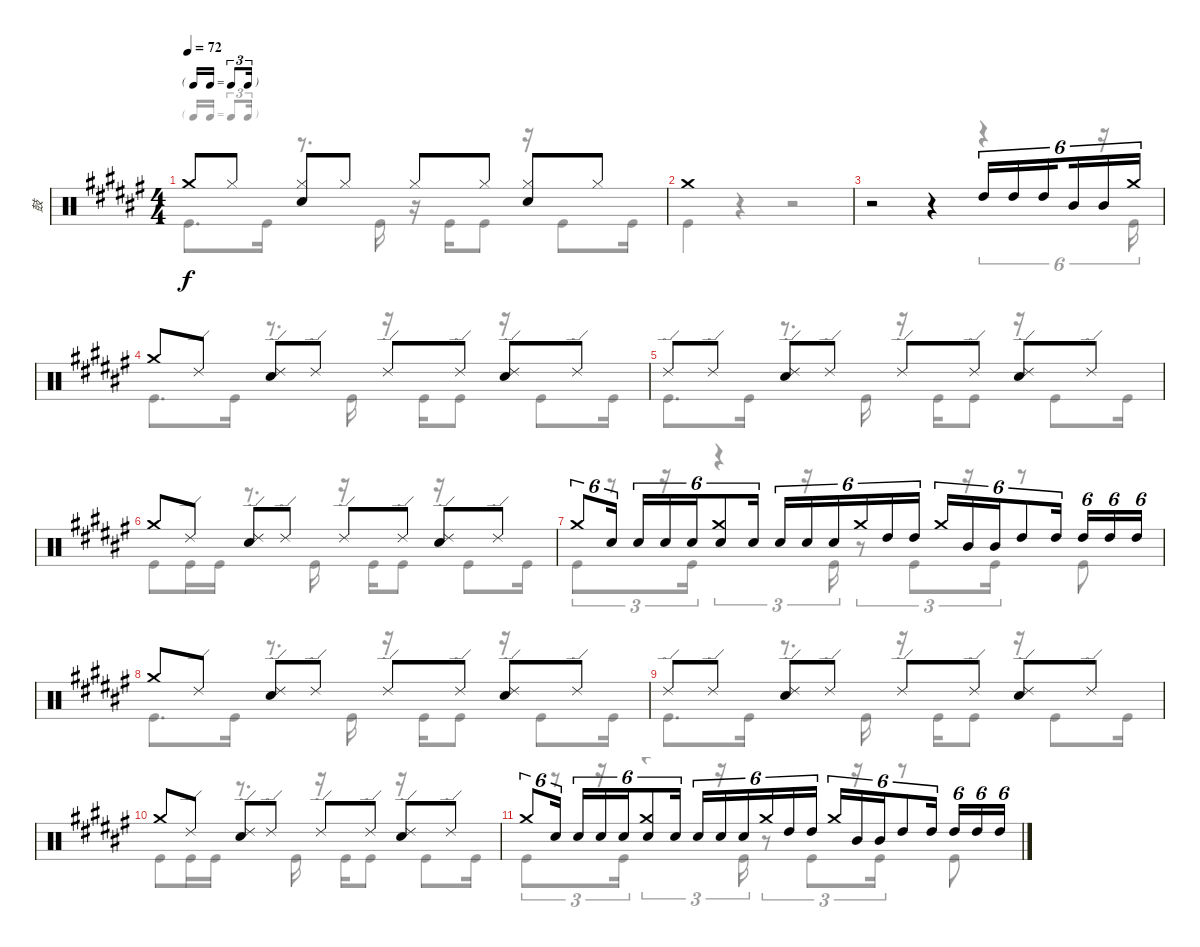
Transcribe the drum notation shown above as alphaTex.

\track ("鼓" "鼓") {instrument percussion}
\staff {score}
\articulation defaults
\voice
\ts (4 4)
\tf triplet16th
\tempo 72
\clef neutral
\ks f# "Crash medium (hit)".8{dy f} "Hi-Hat (closed)".8
("Hi-Hat (closed)" "Snare (hit) 2").8 "Hi-Hat (closed)".8 "Hi-Hat (closed)".8 "Hi-Hat (closed)".8 ("Hi-Hat (closed)" "Snare (hit) 2").8 "Hi-Hat (closed)".8 |
"Crash medium (hit)".1 |
r.2 r.4 "High Tom (hit)".16{tu (6 4)} "High Tom (hit)".16{tu (6 4)} "High Tom (hit)".16{tu (6 4) beam splitsecondary} "Mid Tom (hit)".16{tu (6 4)} "Mid Tom (hit)".16{tu (6 4)} "Crash medium (hit)".16{tu (6 4)} |
"Crash medium (hit)".8 "Ride (edge) 2".8 ("Ride (edge) 2" "Snare (hit) 2").8 "Ride (edge) 2".8 "Ride (edge) 2".8 "Ride (edge) 2".8 ("Ride (edge) 2" "Snare (hit) 2").8 "Ride (edge) 2".8 |
"Ride (edge) 2".8 "Ride (edge) 2".8 ("Ride (edge) 2" "Snare (hit) 2").8 "Ride (edge) 2".8 "Ride (edge) 2".8 "Ride (edge) 2".8 ("Ride (edge) 2" "Snare (hit) 2").8 "Ride (edge) 2".8 |
"Crash medium (hit)".8 "Ride (edge) 2".8 ("Ride (edge) 2" "Snare (hit) 2").8 "Ride (edge) 2".8 "Ride (edge) 2".8 "Ride (edge) 2".8 ("Ride (edge) 2" "Snare (hit) 2").8 "Ride (edge) 2".8 |
"Crash medium (hit)".8{tu (6 4)} "Snare (hit) 2".16{tu (6 4) beam splitsecondary} "Snare (hit) 2".16{tu (6 4)} "Snare (hit) 2".16{tu (6 4)} "Snare (hit) 2".16{tu (6 4)} ("Crash medium (hit)" "Snare (hit) 2").8{tu (6 4)} "Snare (hit) 2".16{tu (6 4) beam splitsecondary} "Snare (hit) 2".16{tu (6 4)} "Snare (hit) 2".16{tu (6 4)} "Snare (hit) 2".16{tu (6 4)} "Crash medium (hit)".16{tu (6 4)} "High Tom (hit)".16{tu (6 4)} "High Tom (hit)".16{tu (6 4) beam splitsecondary} "Crash medium (hit)".16{tu (6 4)} "Mid Tom (hit)".16{tu (6 4)} "Mid Tom (hit)".16{tu (6 4)} "High Tom (hit)".8{tu (6 4)} "High Tom (hit)".16{tu (6 4) beam splitsecondary} "High Tom (hit)".16{tu (6 4)} "High Tom (hit)".16{tu (6 4)} "High Tom (hit)".16{tu (6 4)} |
"Crash medium (hit)".8 "Ride (edge) 2".8 ("Ride (edge) 2" "Snare (hit) 2").8 "Ride (edge) 2".8 "Ride (edge) 2".8 "Ride (edge) 2".8 ("Ride (edge) 2" "Snare (hit) 2").8 "Ride (edge) 2".8 |
"Ride (edge) 2".8 "Ride (edge) 2".8 ("Ride (edge) 2" "Snare (hit) 2").8 "Ride (edge) 2".8 "Ride (edge) 2".8 "Ride (edge) 2".8 ("Ride (edge) 2" "Snare (hit) 2").8 "Ride (edge) 2".8 |
"Crash medium (hit)".8 "Ride (edge) 2".8 ("Ride (edge) 2" "Snare (hit) 2").8 "Ride (edge) 2".8 "Ride (edge) 2".8 "Ride (edge) 2".8 ("Ride (edge) 2" "Snare (hit) 2").8 "Ride (edge) 2".8 |
"Crash medium (hit)".8{tu (6 4)} "Snare (hit) 2".16{tu (6 4) beam splitsecondary} "Snare (hit) 2".16{tu (6 4)} "Snare (hit) 2".16{tu (6 4)} "Snare (hit) 2".16{tu (6 4)} ("Crash medium (hit)" "Snare (hit) 2").8{tu (6 4)} "Snare (hit) 2".16{tu (6 4) beam splitsecondary} "Snare (hit) 2".16{tu (6 4)} "Snare (hit) 2".16{tu (6 4)} "Snare (hit) 2".16{tu (6 4)} "Crash medium (hit)".16{tu (6 4)} "High Tom (hit)".16{tu (6 4)} "High Tom (hit)".16{tu (6 4) beam splitsecondary} "Crash medium (hit)".16{tu (6 4)} "Mid Tom (hit)".16{tu (6 4)} "Mid Tom (hit)".16{tu (6 4)} "High Tom (hit)".8{tu (6 4)} "High Tom (hit)".16{tu (6 4) beam splitsecondary} "High Tom (hit)".16{tu (6 4)} "High Tom (hit)".16{tu (6 4)} "High Tom (hit)".16{tu (6 4)}
\voice
\clef neutral
\ottava regular
\simile none
\ks f# "Kick (hit)".8{d dy f} "Kick (hit)".16
r.8{d} "Kick (hit)".16 r.16 "Kick (hit)".16 "Kick (hit)".8 r.16 "Kick (hit)".8 "Kick (hit)".16 |
"Kick (hit)".4 r.4 r.2 |
r.2 r.4 r.4{tu (6 4)} r.16{tu (6 4)} "Kick (hit)".16{tu (6 4)} |
"Kick (hit)".8{d} "Kick (hit)".16 r.8{d} "Kick (hit)".16 r.16 "Kick (hit)".16 "Kick (hit)".8 r.16 "Kick (hit)".8 "Kick (hit)".16 |
"Kick (hit)".8{d} "Kick (hit)".16 r.8{d} "Kick (hit)".16 r.16 "Kick (hit)".16 "Kick (hit)".8 r.16 "Kick (hit)".8 "Kick (hit)".16 |
"Kick (hit)".8 "Kick (hit)".16 "Kick (hit)".16 r.8{d} "Kick (hit)".16 r.16 "Kick (hit)".16 "Kick (hit)".8 r.16 "Kick (hit)".8 "Kick (hit)".16 |
"Kick (hit)".8{tu (3 2)} r.8{tu (3 2)} r.16{tu (3 2)} "Kick (hit)".16{tu (3 2)} r.4{tu (3 2)} r.16{tu (3 2)} "Kick (hit)".16{tu (3 2)} r.8{tu (3 2)} "Kick (hit)".8{tu (3 2)} r.16{tu (3 2)} "Kick (hit)".16{tu (3 2)} r.8 "Kick (hit)".8 |
"Kick (hit)".8{d} "Kick (hit)".16 r.8{d} "Kick (hit)".16 r.16 "Kick (hit)".16 "Kick (hit)".8 r.16 "Kick (hit)".8 "Kick (hit)".16 |
"Kick (hit)".8{d} "Kick (hit)".16 r.8{d} "Kick (hit)".16 r.16 "Kick (hit)".16 "Kick (hit)".8 r.16 "Kick (hit)".8 "Kick (hit)".16 |
"Kick (hit)".8 "Kick (hit)".16 "Kick (hit)".16 r.8{d} "Kick (hit)".16 r.16 "Kick (hit)".16 "Kick (hit)".8 r.16 "Kick (hit)".8 "Kick (hit)".16 |
"Kick (hit)".8{tu (3 2)} r.8{tu (3 2)} r.16{tu (3 2)} "Kick (hit)".16{tu (3 2)} r.4{tu (3 2)} r.16{tu (3 2)} "Kick (hit)".16{tu (3 2)} r.8{tu (3 2)} "Kick (hit)".8{tu (3 2)} r.16{tu (3 2)} "Kick (hit)".16{tu (3 2)} r.8 "Kick (hit)".8
